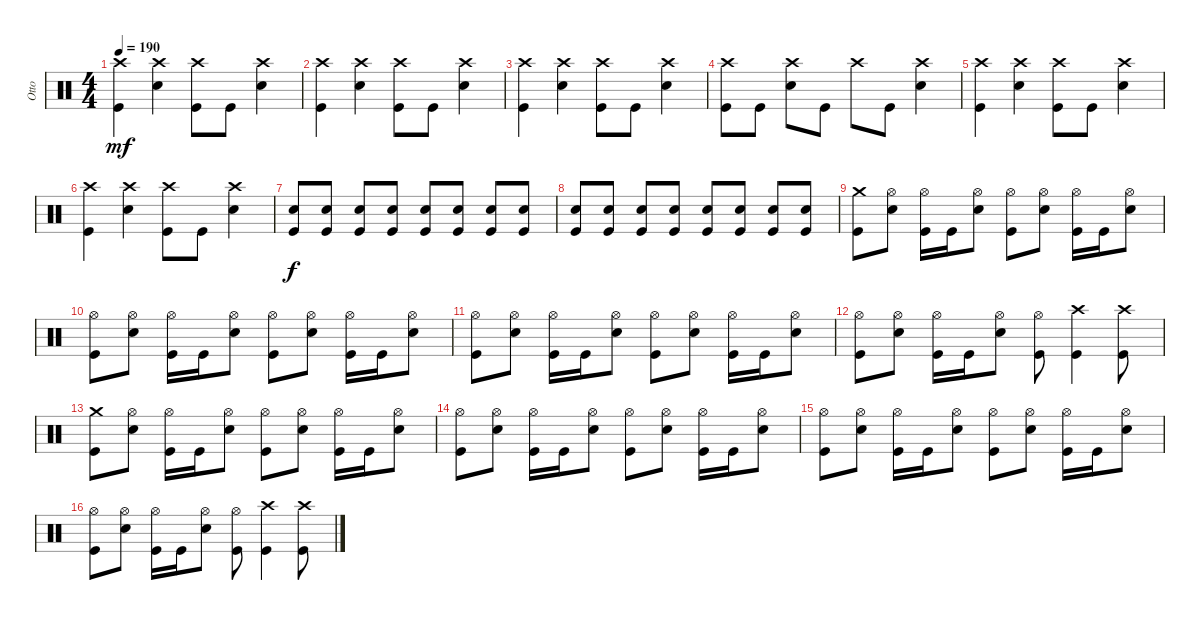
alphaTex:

\track ("Otto" "Otto") {instrument percussion}
\staff {score}
\articulation defaults
\ts (4 4)
\tempo 190
\clef neutral
\ks c
("Kick (hit)" "Crash high (hit)").4{dy mf} ("Snare (hit) 2" "Crash high (hit)").4 ("Kick (hit)" "Crash high (hit)").8 "Kick (hit)".8 ("Snare (hit) 2" "Crash high (hit)").4 |
("Kick (hit)" "Crash high (hit)").4 ("Snare (hit) 2" "Crash high (hit)").4 ("Kick (hit)" "Crash high (hit)").8 "Kick (hit)".8 ("Snare (hit) 2" "Crash high (hit)").4 |
("Kick (hit)" "Crash high (hit)").4 ("Snare (hit) 2" "Crash high (hit)").4 ("Kick (hit)" "Crash high (hit)").8 "Kick (hit)".8 ("Snare (hit) 2" "Crash high (hit)").4 |
("Kick (hit)" "Crash high (hit)").8 "Kick (hit)".8 ("Snare (hit) 2" "Crash high (hit)").8 "Kick (hit)".8 "Crash high (hit)".8 "Kick (hit)".8 ("Snare (hit) 2" "Crash high (hit)").4 |
("Kick (hit)" "Crash high (hit)").4 ("Snare (hit) 2" "Crash high (hit)").4 ("Kick (hit)" "Crash high (hit)").8 "Kick (hit)".8 ("Snare (hit) 2" "Crash high (hit)").4 |
("Kick (hit)" "Crash high (hit)").4 ("Snare (hit) 2" "Crash high (hit)").4 ("Kick (hit)" "Crash high (hit)").8 "Kick (hit)".8 ("Snare (hit) 2" "Crash high (hit)").4 |
("Snare (hit) 2" "Kick (hit)").8{dy f} ("Snare (hit) 2" "Kick (hit)").8 ("Snare (hit) 2" "Kick (hit)").8 ("Snare (hit) 2" "Kick (hit)").8 ("Snare (hit) 2" "Kick (hit)").8 ("Snare (hit) 2" "Kick (hit)").8 ("Snare (hit) 2" "Kick (hit)").8 ("Snare (hit) 2" "Kick (hit)").8 |
("Snare (hit) 2" "Kick (hit)").8 ("Snare (hit) 2" "Kick (hit)").8 ("Snare (hit) 2" "Kick (hit)").8 ("Snare (hit) 2" "Kick (hit)").8 ("Snare (hit) 2" "Kick (hit)").8 ("Snare (hit) 2" "Kick (hit)").8 ("Snare (hit) 2" "Kick (hit)").8 ("Snare (hit) 2" "Kick (hit)").8 |
("Crash medium (hit)" "Kick (hit)").8 ("Hi-Hat (open)" "Snare (hit) 2").8 ("Hi-Hat (open)" "Kick (hit)").16 "Kick (hit)".16 ("Hi-Hat (open)" "Snare (hit) 2").8 ("Hi-Hat (open)" "Kick (hit)").8 ("Hi-Hat (open)" "Snare (hit) 2").8 ("Hi-Hat (open)" "Kick (hit)").16 "Kick (hit)".16 ("Hi-Hat (open)" "Snare (hit) 2").8 |
("Hi-Hat (open)" "Kick (hit)").8 ("Hi-Hat (open)" "Snare (hit) 2").8 ("Hi-Hat (open)" "Kick (hit)").16 "Kick (hit)".16 ("Hi-Hat (open)" "Snare (hit) 2").8 ("Hi-Hat (open)" "Kick (hit)").8 ("Hi-Hat (open)" "Snare (hit) 2").8 ("Hi-Hat (open)" "Kick (hit)").16 "Kick (hit)".16 ("Hi-Hat (open)" "Snare (hit) 2").8 |
("Hi-Hat (open)" "Kick (hit)").8 ("Hi-Hat (open)" "Snare (hit) 2").8 ("Hi-Hat (open)" "Kick (hit)").16 "Kick (hit)".16 ("Hi-Hat (open)" "Snare (hit) 2").8 ("Hi-Hat (open)" "Kick (hit)").8 ("Hi-Hat (open)" "Snare (hit) 2").8 ("Hi-Hat (open)" "Kick (hit)").16 "Kick (hit)".16 ("Hi-Hat (open)" "Snare (hit) 2").8 |
("Hi-Hat (open)" "Kick (hit)").8 ("Hi-Hat (open)" "Snare (hit) 2").8 ("Hi-Hat (open)" "Kick (hit)").16 "Kick (hit)".16 ("Hi-Hat (open)" "Snare (hit) 2").8 ("Hi-Hat (open)" "Kick (hit)").8 ("Crash high (hit)" "Kick (hit)").4 ("Crash high (hit)" "Kick (hit)").8 |
("Crash medium (hit)" "Kick (hit)").8 ("Hi-Hat (open)" "Snare (hit) 2").8 ("Hi-Hat (open)" "Kick (hit)").16 "Kick (hit)".16 ("Hi-Hat (open)" "Snare (hit) 2").8 ("Hi-Hat (open)" "Kick (hit)").8 ("Hi-Hat (open)" "Snare (hit) 2").8 ("Hi-Hat (open)" "Kick (hit)").16 "Kick (hit)".16 ("Hi-Hat (open)" "Snare (hit) 2").8 |
("Hi-Hat (open)" "Kick (hit)").8 ("Hi-Hat (open)" "Snare (hit) 2").8 ("Hi-Hat (open)" "Kick (hit)").16 "Kick (hit)".16 ("Hi-Hat (open)" "Snare (hit) 2").8 ("Hi-Hat (open)" "Kick (hit)").8 ("Hi-Hat (open)" "Snare (hit) 2").8 ("Hi-Hat (open)" "Kick (hit)").16 "Kick (hit)".16 ("Hi-Hat (open)" "Snare (hit) 2").8 |
("Hi-Hat (open)" "Kick (hit)").8 ("Hi-Hat (open)" "Snare (hit) 2").8 ("Hi-Hat (open)" "Kick (hit)").16 "Kick (hit)".16 ("Hi-Hat (open)" "Snare (hit) 2").8 ("Hi-Hat (open)" "Kick (hit)").8 ("Hi-Hat (open)" "Snare (hit) 2").8 ("Hi-Hat (open)" "Kick (hit)").16 "Kick (hit)".16 ("Hi-Hat (open)" "Snare (hit) 2").8 |
("Hi-Hat (open)" "Kick (hit)").8 ("Hi-Hat (open)" "Snare (hit) 2").8 ("Hi-Hat (open)" "Kick (hit)").16 "Kick (hit)".16 ("Hi-Hat (open)" "Snare (hit) 2").8 ("Hi-Hat (open)" "Kick (hit)").8 ("Crash high (hit)" "Kick (hit)").4 ("Crash high (hit)" "Kick (hit)").8
